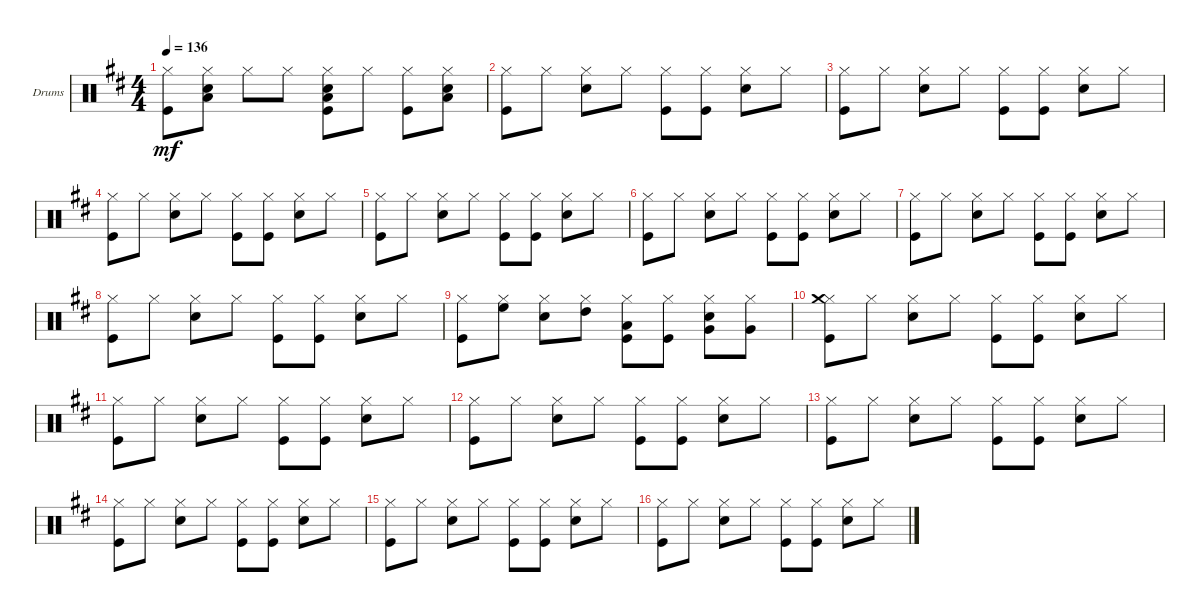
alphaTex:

\defaultSystemsLayout 4
\bracketExtendMode groupsimilarinstruments
\firstSystemTrackNameOrientation horizontal
\otherSystemsTrackNameOrientation horizontal
\track ("Greg Bissonette Drums" "Drums") {instrument percussion}
\staff {score}
\articulation defaults
\ts (4 4)
\tempo 136
\clef neutral
\scale
0.333333
\ks d
("Kick (hit)" "Hi-Hat (closed)").8{dy mf} ("Snare (hit) 2" "Hi-Hat (closed)" "Low Tom (hit)").8 "Hi-Hat (closed)".8 "Hi-Hat (closed)".8 ("Kick (hit)" "Snare (hit) 2" "Hi-Hat (closed)" "Low Tom (hit)").8 "Hi-Hat (closed)".8 ("Kick (hit)" "Hi-Hat (closed)").8 ("Snare (hit) 2" "Hi-Hat (closed)" "Low Tom (hit)").8 |
\scale
0.333333 ("Kick (hit)" "Hi-Hat (closed)").8 "Hi-Hat (closed)".8 ("Snare (hit) 2" "Hi-Hat (closed)").8 "Hi-Hat (closed)".8 ("Kick (hit)" "Hi-Hat (closed)").8 ("Kick (hit)" "Hi-Hat (closed)").8 ("Snare (hit) 2" "Hi-Hat (closed)").8 "Hi-Hat (closed)".8 |
\scale
0.333333 ("Kick (hit)" "Hi-Hat (closed)").8 "Hi-Hat (closed)".8 ("Snare (hit) 2" "Hi-Hat (closed)").8 "Hi-Hat (closed)".8 ("Kick (hit)" "Hi-Hat (closed)").8 ("Kick (hit)" "Hi-Hat (closed)").8 ("Snare (hit) 2" "Hi-Hat (closed)").8 "Hi-Hat (closed)".8 |
\scale
0.333333 ("Kick (hit)" "Hi-Hat (closed)").8 "Hi-Hat (closed)".8 ("Snare (hit) 2" "Hi-Hat (closed)").8 "Hi-Hat (closed)".8 ("Kick (hit)" "Hi-Hat (closed)").8 ("Kick (hit)" "Hi-Hat (closed)").8 ("Snare (hit) 2" "Hi-Hat (closed)").8 "Hi-Hat (closed)".8 |
\scale
0.333333 ("Kick (hit)" "Hi-Hat (closed)").8 "Hi-Hat (closed)".8 ("Snare (hit) 2" "Hi-Hat (closed)").8 "Hi-Hat (closed)".8 ("Kick (hit)" "Hi-Hat (closed)").8 ("Kick (hit)" "Hi-Hat (closed)").8 ("Snare (hit) 2" "Hi-Hat (closed)").8 "Hi-Hat (closed)".8 |
\scale
0.333333 ("Kick (hit)" "Hi-Hat (closed)").8 "Hi-Hat (closed)".8 ("Snare (hit) 2" "Hi-Hat (closed)").8 "Hi-Hat (closed)".8 ("Kick (hit)" "Hi-Hat (closed)").8 ("Kick (hit)" "Hi-Hat (closed)").8 ("Snare (hit) 2" "Hi-Hat (closed)").8 "Hi-Hat (closed)".8 |
\scale
0.333333 ("Kick (hit)" "Hi-Hat (closed)").8 "Hi-Hat (closed)".8 ("Snare (hit) 2" "Hi-Hat (closed)").8 "Hi-Hat (closed)".8 ("Kick (hit)" "Hi-Hat (closed)").8 ("Kick (hit)" "Hi-Hat (closed)").8 ("Snare (hit) 2" "Hi-Hat (closed)").8 "Hi-Hat (closed)".8 |
\scale
0.333333 ("Kick (hit)" "Hi-Hat (closed)").8 "Hi-Hat (closed)".8 ("Snare (hit) 2" "Hi-Hat (closed)").8 "Hi-Hat (closed)".8 ("Kick (hit)" "Hi-Hat (closed)").8 ("Kick (hit)" "Hi-Hat (closed)").8 ("Snare (hit) 2" "Hi-Hat (closed)").8 "Hi-Hat (closed)".8 |
\scale
0.333333 ("Kick (hit)" "Hi-Hat (closed)").8 ("Hi-Hat (closed)" "High Floor Tom (hit)").8 ("Snare (hit) 2" "Hi-Hat (closed)").8 ("Hi-Hat (closed)" "High Tom (hit)").8 ("Kick (hit)" "Hi-Hat (closed)" "Low Tom (hit)").8 ("Kick (hit)" "Hi-Hat (closed)").8 ("Snare (hit) 2" "Very Low Tom (hit)" "Hi-Hat (closed)").8 ("Very Low Tom (hit)" "Hi-Hat (closed)").8 |
\scale
0.333333 ("Kick (hit)" "Hi-Hat (closed)" "Crash medium (hit)").8 "Hi-Hat (closed)".8 ("Snare (hit) 2" "Hi-Hat (closed)").8 "Hi-Hat (closed)".8 ("Kick (hit)" "Hi-Hat (closed)").8 ("Kick (hit)" "Hi-Hat (closed)").8 ("Snare (hit) 2" "Hi-Hat (closed)").8 "Hi-Hat (closed)".8 |
\scale
0.333333 ("Kick (hit)" "Hi-Hat (closed)").8 "Hi-Hat (closed)".8 ("Snare (hit) 2" "Hi-Hat (closed)").8 "Hi-Hat (closed)".8 ("Kick (hit)" "Hi-Hat (closed)").8 ("Kick (hit)" "Hi-Hat (closed)").8 ("Snare (hit) 2" "Hi-Hat (closed)").8 "Hi-Hat (closed)".8 |
\scale
0.333333 ("Kick (hit)" "Hi-Hat (closed)").8 "Hi-Hat (closed)".8 ("Snare (hit) 2" "Hi-Hat (closed)").8 "Hi-Hat (closed)".8 ("Kick (hit)" "Hi-Hat (closed)").8 ("Kick (hit)" "Hi-Hat (closed)").8 ("Snare (hit) 2" "Hi-Hat (closed)").8 "Hi-Hat (closed)".8 |
\scale
0.333333 ("Kick (hit)" "Hi-Hat (closed)").8 "Hi-Hat (closed)".8 ("Snare (hit) 2" "Hi-Hat (closed)").8 "Hi-Hat (closed)".8 ("Kick (hit)" "Hi-Hat (closed)").8 ("Kick (hit)" "Hi-Hat (closed)").8 ("Snare (hit) 2" "Hi-Hat (closed)").8 "Hi-Hat (closed)".8 |
\scale
0.333333 ("Kick (hit)" "Hi-Hat (closed)").8 "Hi-Hat (closed)".8 ("Snare (hit) 2" "Hi-Hat (closed)").8 "Hi-Hat (closed)".8 ("Kick (hit)" "Hi-Hat (closed)").8 ("Kick (hit)" "Hi-Hat (closed)").8 ("Snare (hit) 2" "Hi-Hat (closed)").8 "Hi-Hat (closed)".8 |
\scale
0.333333 ("Kick (hit)" "Hi-Hat (closed)").8 "Hi-Hat (closed)".8 ("Snare (hit) 2" "Hi-Hat (closed)").8 "Hi-Hat (closed)".8 ("Kick (hit)" "Hi-Hat (closed)").8 ("Kick (hit)" "Hi-Hat (closed)").8 ("Snare (hit) 2" "Hi-Hat (closed)").8 "Hi-Hat (closed)".8 |
\scale
0.333333 ("Kick (hit)" "Hi-Hat (closed)").8 "Hi-Hat (closed)".8 ("Snare (hit) 2" "Hi-Hat (closed)").8 "Hi-Hat (closed)".8 ("Kick (hit)" "Hi-Hat (closed)").8 ("Kick (hit)" "Hi-Hat (closed)").8 ("Snare (hit) 2" "Hi-Hat (closed)").8 "Hi-Hat (closed)".8
